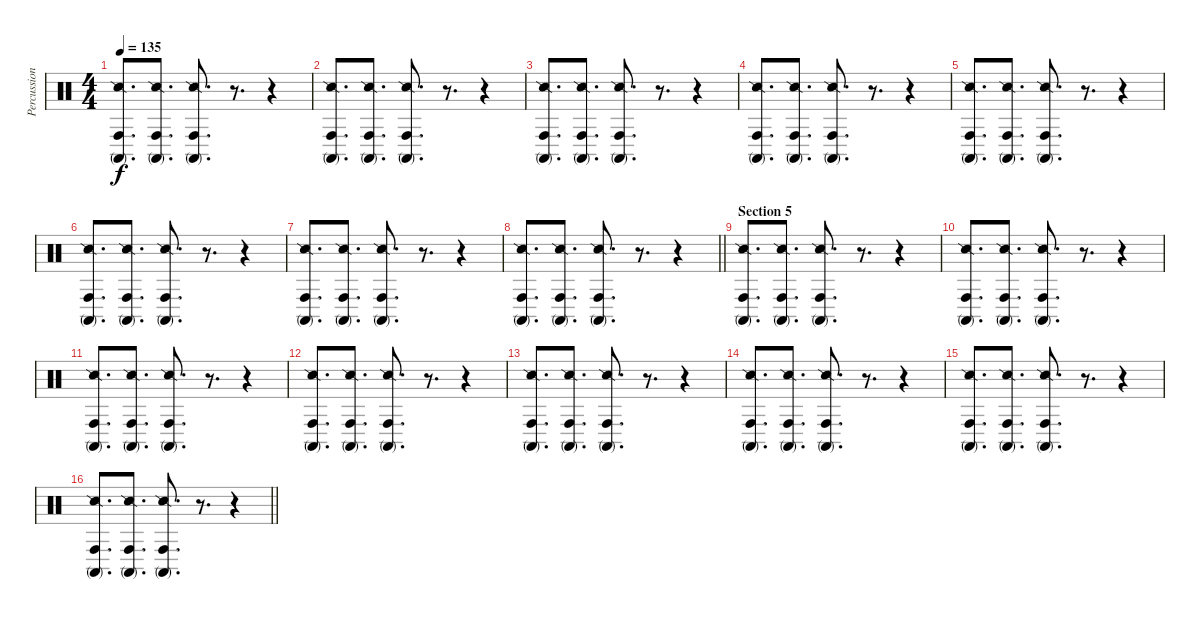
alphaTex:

\track ("Percussion FX" "Percussion") {instrument percussion}
\staff {score}
\articulation defaults
\ts (4 4)
\tempo 135
\clef neutral
\ks c
("Snare (side stick) 2" "Conga high (mute)" "Conga high (hit)").8{d dy f} ("Snare (side stick) 2" "Conga high (mute)" "Conga high (hit)").8{d} ("Snare (side stick) 2" "Conga high (mute)" "Conga high (hit)").8{d} r.8{d} r.4 |
("Snare (side stick) 2" "Conga high (mute)" "Conga high (hit)").8{d} ("Snare (side stick) 2" "Conga high (mute)" "Conga high (hit)").8{d} ("Snare (side stick) 2" "Conga high (mute)" "Conga high (hit)").8{d} r.8{d} r.4 |
("Snare (side stick) 2" "Conga high (mute)" "Conga high (hit)").8{d} ("Snare (side stick) 2" "Conga high (mute)" "Conga high (hit)").8{d} ("Snare (side stick) 2" "Conga high (mute)" "Conga high (hit)").8{d} r.8{d} r.4 |
("Snare (side stick) 2" "Conga high (mute)" "Conga high (hit)").8{d} ("Snare (side stick) 2" "Conga high (mute)" "Conga high (hit)").8{d} ("Snare (side stick) 2" "Conga high (mute)" "Conga high (hit)").8{d} r.8{d} r.4 |
("Snare (side stick) 2" "Conga high (mute)" "Conga high (hit)").8{d} ("Snare (side stick) 2" "Conga high (mute)" "Conga high (hit)").8{d} ("Snare (side stick) 2" "Conga high (mute)" "Conga high (hit)").8{d} r.8{d} r.4 |
("Snare (side stick) 2" "Conga high (mute)" "Conga high (hit)").8{d} ("Snare (side stick) 2" "Conga high (mute)" "Conga high (hit)").8{d} ("Snare (side stick) 2" "Conga high (mute)" "Conga high (hit)").8{d} r.8{d} r.4 |
("Snare (side stick) 2" "Conga high (mute)" "Conga high (hit)").8{d} ("Snare (side stick) 2" "Conga high (mute)" "Conga high (hit)").8{d} ("Snare (side stick) 2" "Conga high (mute)" "Conga high (hit)").8{d} r.8{d} r.4 |
\barLineRight lightlight
("Snare (side stick) 2" "Conga high (mute)" "Conga high (hit)").8{d} ("Snare (side stick) 2" "Conga high (mute)" "Conga high (hit)").8{d} ("Snare (side stick) 2" "Conga high (mute)" "Conga high (hit)").8{d} r.8{d} r.4 |
\section ("" "Section 5")
("Snare (side stick) 2" "Conga high (mute)" "Conga high (hit)").8{d} ("Snare (side stick) 2" "Conga high (mute)" "Conga high (hit)").8{d} ("Snare (side stick) 2" "Conga high (mute)" "Conga high (hit)").8{d} r.8{d} r.4 |
("Snare (side stick) 2" "Conga high (mute)" "Conga high (hit)").8{d} ("Snare (side stick) 2" "Conga high (mute)" "Conga high (hit)").8{d} ("Snare (side stick) 2" "Conga high (mute)" "Conga high (hit)").8{d} r.8{d} r.4 |
("Snare (side stick) 2" "Conga high (mute)" "Conga high (hit)").8{d} ("Snare (side stick) 2" "Conga high (mute)" "Conga high (hit)").8{d} ("Snare (side stick) 2" "Conga high (mute)" "Conga high (hit)").8{d} r.8{d} r.4 |
("Snare (side stick) 2" "Conga high (mute)" "Conga high (hit)").8{d} ("Snare (side stick) 2" "Conga high (mute)" "Conga high (hit)").8{d} ("Snare (side stick) 2" "Conga high (mute)" "Conga high (hit)").8{d} r.8{d} r.4 |
("Snare (side stick) 2" "Conga high (mute)" "Conga high (hit)").8{d} ("Snare (side stick) 2" "Conga high (mute)" "Conga high (hit)").8{d} ("Snare (side stick) 2" "Conga high (mute)" "Conga high (hit)").8{d} r.8{d} r.4 |
("Snare (side stick) 2" "Conga high (mute)" "Conga high (hit)").8{d} ("Snare (side stick) 2" "Conga high (mute)" "Conga high (hit)").8{d} ("Snare (side stick) 2" "Conga high (mute)" "Conga high (hit)").8{d} r.8{d} r.4 |
("Snare (side stick) 2" "Conga high (mute)" "Conga high (hit)").8{d} ("Snare (side stick) 2" "Conga high (mute)" "Conga high (hit)").8{d} ("Snare (side stick) 2" "Conga high (mute)" "Conga high (hit)").8{d} r.8{d} r.4 |
\barLineRight lightlight
("Snare (side stick) 2" "Conga high (mute)" "Conga high (hit)").8{d} ("Snare (side stick) 2" "Conga high (mute)" "Conga high (hit)").8{d} ("Snare (side stick) 2" "Conga high (mute)" "Conga high (hit)").8{d} r.8{d} r.4
